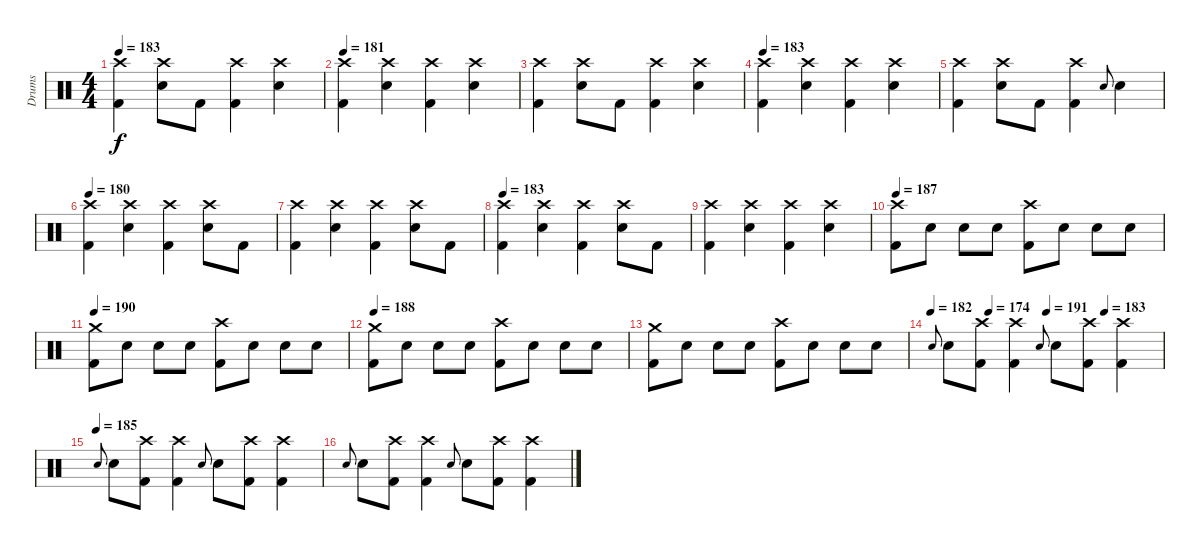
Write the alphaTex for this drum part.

\track ("Drums" "Drums") {instrument percussion}
\staff {score}
\articulation defaults
\ts (4 4)
\tempo 183
\clef neutral
\ks c
("Crash high (hit)" "Kick (hit) 2").4{dy f} ("Snare (hit) 2" "Crash high (hit)").8 "Kick (hit) 2".8 ("Kick (hit) 2" "Crash high (hit)").4 ("Snare (hit) 2" "Crash high (hit)").4 |
\tempo 181
("Crash high (hit)" "Kick (hit) 2").4 ("Snare (hit) 2" "Crash high (hit)").4 ("Kick (hit) 2" "Crash high (hit)").4 ("Snare (hit) 2" "Crash high (hit)").4 |
("Crash high (hit)" "Kick (hit) 2").4 ("Snare (hit) 2" "Crash high (hit)").8 "Kick (hit) 2".8 ("Kick (hit) 2" "Crash high (hit)").4 ("Snare (hit) 2" "Crash high (hit)").4 |
\tempo 183
("Crash high (hit)" "Kick (hit) 2").4 ("Snare (hit) 2" "Crash high (hit)").4 ("Kick (hit) 2" "Crash high (hit)").4 ("Snare (hit) 2" "Crash high (hit)").4 |
("Crash high (hit)" "Kick (hit) 2").4 ("Snare (hit) 2" "Crash high (hit)").8 "Kick (hit) 2".8 ("Kick (hit) 2" "Crash high (hit)").4 "Snare (hit)".8{gr onbeat} "Snare (hit) 2".4 |
\tempo 180
("Crash high (hit)" "Kick (hit) 2").4 ("Snare (hit) 2" "Crash high (hit)").4 ("Kick (hit) 2" "Crash high (hit)").4 ("Snare (hit) 2" "Crash high (hit)").8 "Kick (hit) 2".8 |
("Crash high (hit)" "Kick (hit) 2").4 ("Snare (hit) 2" "Crash high (hit)").4 ("Kick (hit) 2" "Crash high (hit)").4 ("Snare (hit) 2" "Crash high (hit)").8 "Kick (hit) 2".8 |
\tempo 183
("Crash high (hit)" "Kick (hit) 2").4 ("Snare (hit) 2" "Crash high (hit)").4 ("Kick (hit) 2" "Crash high (hit)").4 ("Snare (hit) 2" "Crash high (hit)").8 "Kick (hit) 2".8 |
("Crash high (hit)" "Kick (hit) 2").4 ("Snare (hit) 2" "Crash high (hit)").4 ("Kick (hit) 2" "Crash high (hit)").4 ("Snare (hit) 2" "Crash high (hit)").4 |
\tempo 187
("Kick (hit) 2" "Crash high (hit)").8 "Snare (hit) 2".8 "Snare (hit) 2".8 "Snare (hit) 2".8 ("Kick (hit) 2" "Crash high (hit)").8 "Snare (hit) 2".8 "Snare (hit) 2".8 "Snare (hit) 2".8 |
\tempo 190
("Kick (hit) 2" "Crash medium (hit)").8 "Snare (hit) 2".8 "Snare (hit) 2".8 "Snare (hit) 2".8 ("Kick (hit) 2" "Crash high (hit)").8 "Snare (hit) 2".8 "Snare (hit) 2".8 "Snare (hit) 2".8 |
\tempo 188
("Kick (hit) 2" "Crash medium (hit)").8 "Snare (hit) 2".8 "Snare (hit) 2".8 "Snare (hit) 2".8 ("Kick (hit) 2" "Crash high (hit)").8 "Snare (hit) 2".8 "Snare (hit) 2".8 "Snare (hit) 2".8 |
("Kick (hit) 2" "Crash medium (hit)").8 "Snare (hit) 2".8 "Snare (hit) 2".8 "Snare (hit) 2".8 ("Kick (hit) 2" "Crash high (hit)").8 "Snare (hit) 2".8 "Snare (hit) 2".8 "Snare (hit) 2".8 |
\tempo 182
\tempo (174 0.25)
\tempo (191 0.5)
\tempo (183 0.75)
"Snare (hit)".8{gr onbeat} "Snare (hit) 2".8 ("Kick (hit) 2" "Crash high (hit)").8 ("Kick (hit) 2" "Crash high (hit)").4 "Snare (hit)".8{gr onbeat} "Snare (hit) 2".8 ("Kick (hit) 2" "Crash high (hit)").8 ("Kick (hit) 2" "Crash high (hit)").4 |
\tempo (185)
"Snare (hit)".8{gr onbeat} "Snare (hit) 2".8 ("Kick (hit) 2" "Crash high (hit)").8 ("Kick (hit) 2" "Crash high (hit)").4 "Snare (hit)".8{gr onbeat} "Snare (hit) 2".8 ("Kick (hit) 2" "Crash high (hit)").8 ("Kick (hit) 2" "Crash high (hit)").4 |
"Snare (hit)".8{gr onbeat} "Snare (hit) 2".8 ("Kick (hit) 2" "Crash high (hit)").8 ("Kick (hit) 2" "Crash high (hit)").4 "Snare (hit)".8{gr onbeat} "Snare (hit) 2".8 ("Kick (hit) 2" "Crash high (hit)").8 ("Kick (hit) 2" "Crash high (hit)").4
